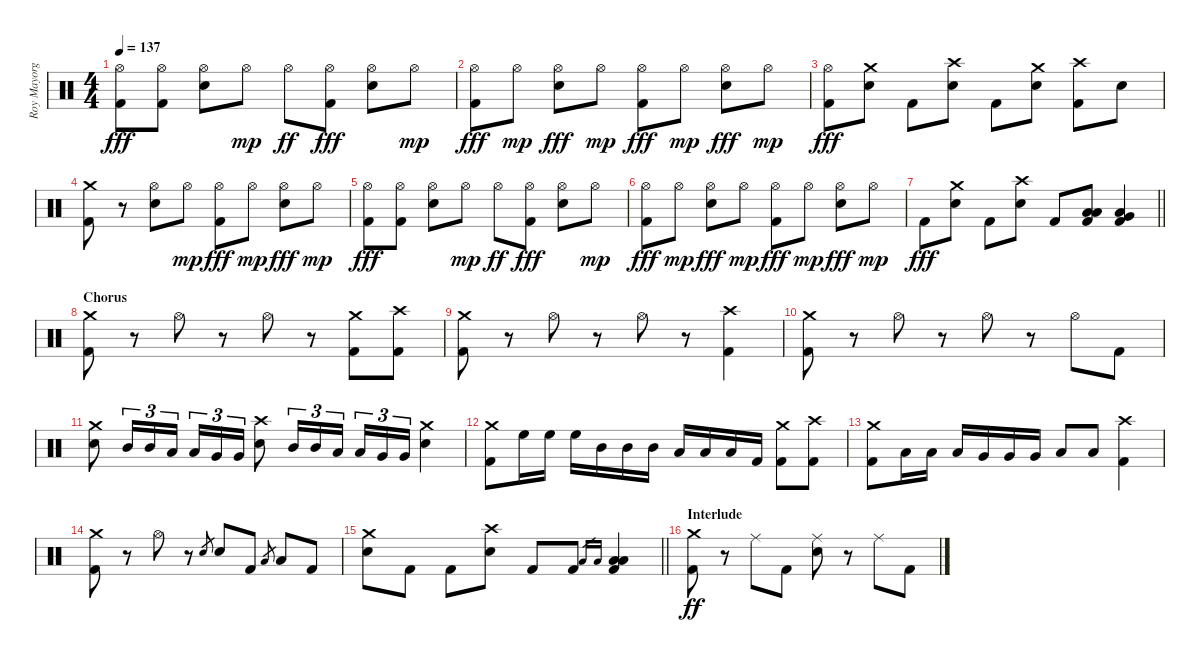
\track ("Roy Mayorga (Drums)" "Roy Mayorg") {instrument percussion}
\staff {score}
\articulation defaults
\ts (4 4)
\tempo 137
\clef neutral
\ks c
("Hi-Hat (open)" "Kick (hit) 2").8{dy fff} ("Hi-Hat (open)" "Kick (hit) 2").8 ("Hi-Hat (open)" "Electric Snare (hit)").8 "Hi-Hat (open)".8{dy mp} "Hi-Hat (open)".8{dy ff} ("Hi-Hat (open)" "Kick (hit) 2").8{dy fff} ("Hi-Hat (open)" "Electric Snare (hit)").8 "Hi-Hat (open)".8{dy mp} |
("Hi-Hat (open)" "Kick (hit) 2").8{dy fff} "Hi-Hat (open)".8{dy mp} ("Hi-Hat (open)" "Electric Snare (hit)").8{dy fff} "Hi-Hat (open)".8{dy mp} ("Hi-Hat (open)" "Kick (hit) 2").8{dy fff} "Hi-Hat (open)".8{dy mp} ("Hi-Hat (open)" "Electric Snare (hit)").8{dy fff} "Hi-Hat (open)".8{dy mp} |
("Hi-Hat (open)" "Kick (hit) 2").8{dy fff} ("Crash medium (hit)" "Electric Snare (hit)").8 "Kick (hit) 2".8 ("Crash high (hit)" "Electric Snare (hit)").8 "Kick (hit) 2".8 ("Crash medium (hit)" "Electric Snare (hit)").8 ("Crash high (hit)" "Kick (hit) 2").8 "Electric Snare (hit)".8 |
("Crash medium (hit)" "Kick (hit) 2").8 r.8 ("Hi-Hat (open)" "Electric Snare (hit)").8 "Hi-Hat (open)".8{dy mp} ("Hi-Hat (open)" "Kick (hit) 2").8{dy fff} "Hi-Hat (open)".8{dy mp} ("Hi-Hat (open)" "Electric Snare (hit)").8{dy fff} "Hi-Hat (open)".8{dy mp} |
("Hi-Hat (open)" "Kick (hit) 2").8{dy fff} ("Hi-Hat (open)" "Kick (hit) 2").8 ("Hi-Hat (open)" "Electric Snare (hit)").8 "Hi-Hat (open)".8{dy mp} "Hi-Hat (open)".8{dy ff} ("Hi-Hat (open)" "Kick (hit) 2").8{dy fff} ("Hi-Hat (open)" "Electric Snare (hit)").8 "Hi-Hat (open)".8{dy mp} |
("Hi-Hat (open)" "Kick (hit) 2").8{dy fff} "Hi-Hat (open)".8{dy mp} ("Hi-Hat (open)" "Electric Snare (hit)").8{dy fff} "Hi-Hat (open)".8{dy mp} ("Hi-Hat (open)" "Kick (hit) 2").8{dy fff} "Hi-Hat (open)".8{dy mp} ("Hi-Hat (open)" "Electric Snare (hit)").8{dy fff} "Hi-Hat (open)".8{dy mp} |
\barLineRight lightlight "Kick (hit) 2".8{dy fff}
("Crash medium (hit)" "Electric Snare (hit)").8 "Kick (hit) 2".8 ("Crash high (hit)" "Electric Snare (hit)").8 "Kick (hit) 2".8 ("Low Tom (hit)" "Low Floor Tom (hit)" "Kick (hit) 2").8 ("Very Low Tom (hit)" "Low Floor Tom (hit)" "Kick (hit) 2").4 |
\section ("" "Chorus")
("Crash medium (hit)" "Kick (hit) 2").8 r.8 "Hi-Hat (open)".8 r.8 "Hi-Hat (open)".8 r.8 ("Crash medium (hit)" "Kick (hit) 2").8 ("Crash high (hit)" "Kick (hit) 2").8 |
("Crash medium (hit)" "Kick (hit) 2").8 r.8 "Hi-Hat (open)".8 r.8 "Hi-Hat (open)".8 r.8 ("Crash high (hit)" "Kick (hit) 2").4 |
("Crash medium (hit)" "Kick (hit) 2").8 r.8 "Hi-Hat (open)".8 r.8 "Hi-Hat (open)".8 r.8 "Hi-Hat (open)".8 "Kick (hit) 2".8 |
("Crash medium (hit)" "Electric Snare (hit)").8 "Mid Tom (hit)".16{tu (3 2)} "Mid Tom (hit)".16{tu (3 2)} "Low Tom (hit)".16{tu (3 2)} "Low Tom (hit)".16{tu (3 2)} "Very Low Tom (hit)".16{tu (3 2)} "Very Low Tom (hit)".16{tu (3 2)} ("Crash high (hit)" "Electric Snare (hit)").8 "Mid Tom (hit)".16{tu (3 2)} "Mid Tom (hit)".16{tu (3 2)} "Low Tom (hit)".16{tu (3 2) beam splitsecondary} "Low Tom (hit)".16{tu (3 2)} "Very Low Tom (hit)".16{tu (3 2)} "Very Low Tom (hit)".16{tu (3 2)} ("Crash medium (hit)" "Electric Snare (hit)").4 |
("Crash medium (hit)" "Kick (hit) 2").8 "High Floor Tom (hit)".16 "High Floor Tom (hit)".16 "High Floor Tom (hit)".16 "Mid Tom (hit)".16 "Mid Tom (hit)".16 "Mid Tom (hit)".16 "Low Tom (hit)".16 "Low Tom (hit)".16 "Low Tom (hit)".16 "Kick (hit) 2".16 ("Crash medium (hit)" "Kick (hit) 2").8 ("Crash high (hit)" "Kick (hit) 2").8 |
("Crash medium (hit)" "Kick (hit) 2").8 "Low Tom (hit)".16 "Low Tom (hit)".16 "Low Tom (hit)".16 "Very Low Tom (hit)".16 "Very Low Tom (hit)".16 "Very Low Tom (hit)".16 "Low Floor Tom (hit)".8 "Low Floor Tom (hit)".8 ("Crash high (hit)" "Kick (hit) 2").4 |
("Crash medium (hit)" "Kick (hit) 2").8 r.8 "Hi-Hat (open)".8 r.8 "Electric Snare (hit)".8{gr} "Electric Snare (hit)".8 "Kick (hit) 2".8 "Low Tom (hit)".8{gr} "Low Tom (hit)".8 "Kick (hit) 2".8 |
\barLineRight lightlight
("Crash medium (hit)" "Electric Snare (hit)").8 "Kick (hit) 2".8 "Kick (hit) 2".8 ("Crash high (hit)" "Electric Snare (hit)").8 "Kick (hit) 2".8 "Kick (hit) 2".8 "Low Tom (hit)".16{gr} "Low Floor Tom (hit)".16{gr} ("Low Tom (hit)" "Low Floor Tom (hit)" "Kick (hit) 2").4 |
\section ("" "Interlude")
("Crash medium (hit)" "Kick (hit) 2").8{dy ff} r.8 "Ride (middle)".8 "Kick (hit) 2".8 ("Ride (middle)" "Electric Snare (hit)").8 r.8 "Ride (middle)".8 "Kick (hit) 2".8
